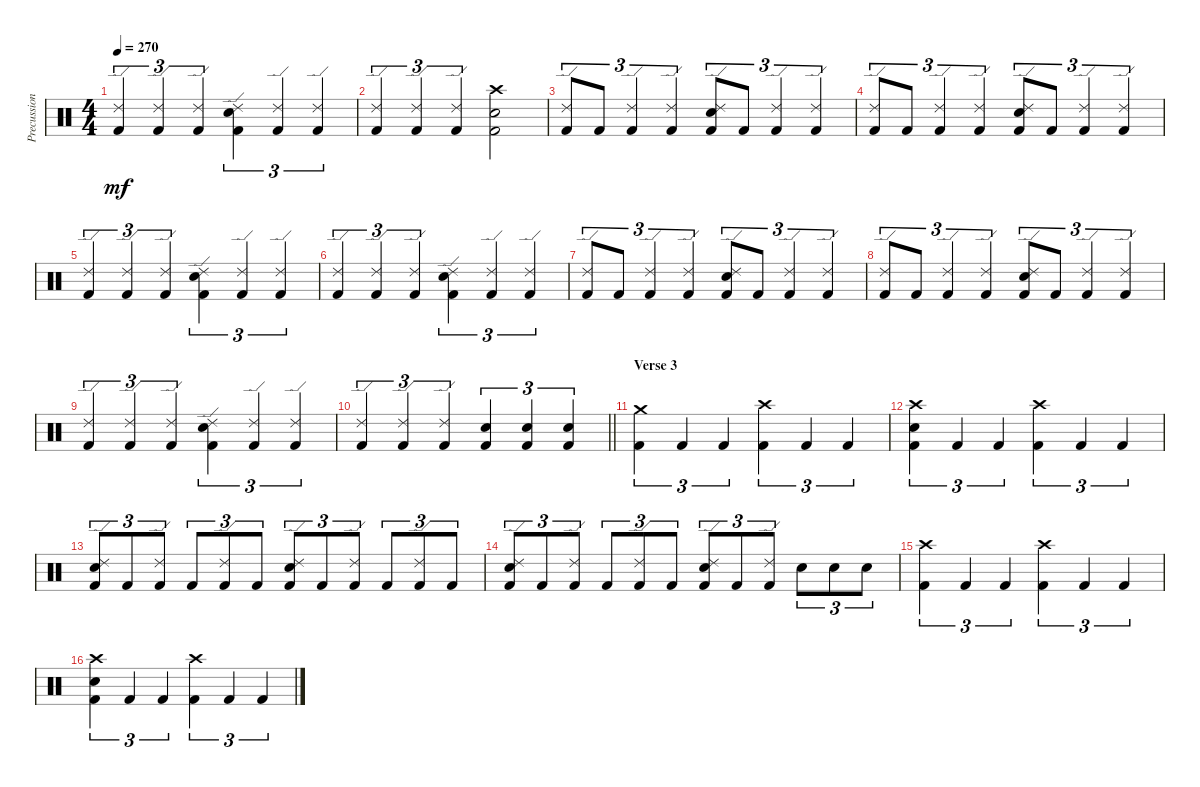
\track ("Precussion" "Precussion") {instrument percussion}
\staff {score}
\articulation defaults
\ts (4 4)
\tempo 270
\clef neutral
\ks c
("Ride (edge) 2" "Kick (hit) 2").4{tu (3 2) dy mf} ("Ride (edge) 2" "Kick (hit) 2").4{tu (3 2)} ("Ride (edge) 2" "Kick (hit) 2").4{tu (3 2)} ("Ride (edge) 2" "Electric Snare (hit)" "Kick (hit) 2").4{tu (3 2)} ("Ride (edge) 2" "Kick (hit) 2").4{tu (3 2)} ("Ride (edge) 2" "Kick (hit) 2").4{tu (3 2)} |
("Ride (edge) 2" "Kick (hit) 2").4{tu (3 2)} ("Ride (edge) 2" "Kick (hit) 2").4{tu (3 2)} ("Ride (edge) 2" "Kick (hit) 2").4{tu (3 2)} ("Crash high (hit)" "Electric Snare (hit)" "Kick (hit) 2").2 |
("Ride (edge) 2" "Kick (hit) 2").8{tu (3 2)} "Kick (hit) 2".8{tu (3 2)} ("Ride (edge) 2" "Kick (hit) 2").4{tu (3 2)} ("Ride (edge) 2" "Kick (hit) 2").4{tu (3 2)} ("Ride (edge) 2" "Electric Snare (hit)" "Kick (hit) 2").8{tu (3 2)} "Kick (hit) 2".8{tu (3 2)} ("Ride (edge) 2" "Kick (hit) 2").4{tu (3 2)} ("Ride (edge) 2" "Kick (hit) 2").4{tu (3 2)} |
("Ride (edge) 2" "Kick (hit) 2").8{tu (3 2)} "Kick (hit) 2".8{tu (3 2)} ("Ride (edge) 2" "Kick (hit) 2").4{tu (3 2)} ("Ride (edge) 2" "Kick (hit) 2").4{tu (3 2)} ("Ride (edge) 2" "Electric Snare (hit)" "Kick (hit) 2").8{tu (3 2)} "Kick (hit) 2".8{tu (3 2)} ("Ride (edge) 2" "Kick (hit) 2").4{tu (3 2)} ("Ride (edge) 2" "Kick (hit) 2").4{tu (3 2)} |
("Ride (edge) 2" "Kick (hit) 2").4{tu (3 2)} ("Ride (edge) 2" "Kick (hit) 2").4{tu (3 2)} ("Ride (edge) 2" "Kick (hit) 2").4{tu (3 2)} ("Ride (edge) 2" "Electric Snare (hit)" "Kick (hit) 2").4{tu (3 2)} ("Ride (edge) 2" "Kick (hit) 2").4{tu (3 2)} ("Ride (edge) 2" "Kick (hit) 2").4{tu (3 2)} |
("Ride (edge) 2" "Kick (hit) 2").4{tu (3 2)} ("Ride (edge) 2" "Kick (hit) 2").4{tu (3 2)} ("Ride (edge) 2" "Kick (hit) 2").4{tu (3 2)} ("Ride (edge) 2" "Electric Snare (hit)" "Kick (hit) 2").4{tu (3 2)} ("Ride (edge) 2" "Kick (hit) 2").4{tu (3 2)} ("Ride (edge) 2" "Kick (hit) 2").4{tu (3 2)} |
("Ride (edge) 2" "Kick (hit) 2").8{tu (3 2)} "Kick (hit) 2".8{tu (3 2)} ("Ride (edge) 2" "Kick (hit) 2").4{tu (3 2)} ("Ride (edge) 2" "Kick (hit) 2").4{tu (3 2)} ("Ride (edge) 2" "Electric Snare (hit)" "Kick (hit) 2").8{tu (3 2)} "Kick (hit) 2".8{tu (3 2)} ("Ride (edge) 2" "Kick (hit) 2").4{tu (3 2)} ("Ride (edge) 2" "Kick (hit) 2").4{tu (3 2)} |
("Ride (edge) 2" "Kick (hit) 2").8{tu (3 2)} "Kick (hit) 2".8{tu (3 2)} ("Ride (edge) 2" "Kick (hit) 2").4{tu (3 2)} ("Ride (edge) 2" "Kick (hit) 2").4{tu (3 2)} ("Ride (edge) 2" "Electric Snare (hit)" "Kick (hit) 2").8{tu (3 2)} "Kick (hit) 2".8{tu (3 2)} ("Ride (edge) 2" "Kick (hit) 2").4{tu (3 2)} ("Ride (edge) 2" "Kick (hit) 2").4{tu (3 2)} |
("Ride (edge) 2" "Kick (hit) 2").4{tu (3 2)} ("Ride (edge) 2" "Kick (hit) 2").4{tu (3 2)} ("Ride (edge) 2" "Kick (hit) 2").4{tu (3 2)} ("Ride (edge) 2" "Electric Snare (hit)" "Kick (hit) 2").4{tu (3 2)} ("Ride (edge) 2" "Kick (hit) 2").4{tu (3 2)} ("Ride (edge) 2" "Kick (hit) 2").4{tu (3 2)} |
\barLineRight lightlight
("Ride (edge) 2" "Kick (hit) 2").4{tu (3 2)} ("Ride (edge) 2" "Kick (hit) 2").4{tu (3 2)} ("Ride (edge) 2" "Kick (hit) 2").4{tu (3 2)} ("Electric Snare (hit)" "Kick (hit) 2").4{tu (3 2)} ("Electric Snare (hit)" "Kick (hit) 2").4{tu (3 2)} ("Electric Snare (hit)" "Kick (hit) 2").4{tu (3 2)} |
\section ("" "Verse 3")
("Crash medium (hit)" "Kick (hit) 2").4{tu (3 2)} "Kick (hit) 2".4{tu (3 2)} "Kick (hit) 2".4{tu (3 2)} ("Crash high (hit)" "Kick (hit) 2").4{tu (3 2)} "Kick (hit) 2".4{tu (3 2)} "Kick (hit) 2".4{tu (3 2)} |
("Crash high (hit)" "Electric Snare (hit)" "Kick (hit) 2").4{tu (3 2)} "Kick (hit) 2".4{tu (3 2)} "Kick (hit) 2".4{tu (3 2)} ("Crash high (hit)" "Kick (hit) 2").4{tu (3 2)} "Kick (hit) 2".4{tu (3 2)} "Kick (hit) 2".4{tu (3 2)} |
("Ride (edge) 2" "Electric Snare (hit)" "Kick (hit) 2").8{tu (3 2)} "Kick (hit) 2".8{tu (3 2)} ("Ride (edge) 2" "Kick (hit) 2").8{tu (3 2)} "Kick (hit) 2".8{tu (3 2)} ("Ride (edge) 2" "Kick (hit) 2").8{tu (3 2)} "Kick (hit) 2".8{tu (3 2)} ("Ride (edge) 2" "Electric Snare (hit)" "Kick (hit) 2").8{tu (3 2)} "Kick (hit) 2".8{tu (3 2)} ("Ride (edge) 2" "Kick (hit) 2").8{tu (3 2)} "Kick (hit) 2".8{tu (3 2)} ("Ride (edge) 2" "Kick (hit) 2").8{tu (3 2)} "Kick (hit) 2".8{tu (3 2)} |
("Ride (edge) 2" "Electric Snare (hit)" "Kick (hit) 2").8{tu (3 2)} "Kick (hit) 2".8{tu (3 2)} ("Ride (edge) 2" "Kick (hit) 2").8{tu (3 2)} "Kick (hit) 2".8{tu (3 2)} ("Ride (edge) 2" "Kick (hit) 2").8{tu (3 2)} "Kick (hit) 2".8{tu (3 2)} ("Ride (edge) 2" "Electric Snare (hit)" "Kick (hit) 2").8{tu (3 2)} "Kick (hit) 2".8{tu (3 2)} ("Ride (edge) 2" "Kick (hit) 2").8{tu (3 2)} "Electric Snare (hit)".8{tu (3 2)} "Electric Snare (hit)".8{tu (3 2)} "Electric Snare (hit)".8{tu (3 2)} |
("Crash high (hit)" "Kick (hit) 2").4{tu (3 2)} "Kick (hit) 2".4{tu (3 2)} "Kick (hit) 2".4{tu (3 2)} ("Crash high (hit)" "Kick (hit) 2").4{tu (3 2)} "Kick (hit) 2".4{tu (3 2)} "Kick (hit) 2".4{tu (3 2)} |
("Crash high (hit)" "Electric Snare (hit)" "Kick (hit) 2").4{tu (3 2)} "Kick (hit) 2".4{tu (3 2)} "Kick (hit) 2".4{tu (3 2)} ("Crash high (hit)" "Kick (hit) 2").4{tu (3 2)} "Kick (hit) 2".4{tu (3 2)} "Kick (hit) 2".4{tu (3 2)}
